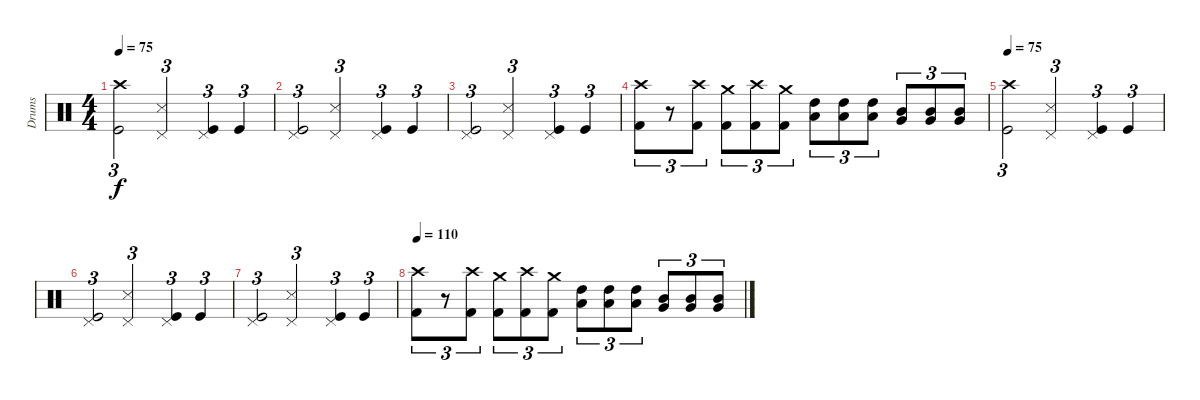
\track ("Drums" "Drums") {instrument percussion}
\staff {score}
\articulation defaults
\ts (4 4)
\tempo 75
\clef neutral
\ks c
("Crash high (hit)" "Kick (hit)").2{tu (3 2) dy f} ("Pedal Hi-Hat (hit)" "Snare (side stick) 3").2{tu (3 2)} ("Pedal Hi-Hat (hit)" "Kick (hit)").4{tu (3 2)} "Kick (hit)".4{tu (3 2)} |
("Pedal Hi-Hat (hit)" "Kick (hit)").2{tu (3 2)} ("Pedal Hi-Hat (hit)" "Snare (side stick) 3").2{tu (3 2)} ("Pedal Hi-Hat (hit)" "Kick (hit)").4{tu (3 2)} "Kick (hit)".4{tu (3 2)} |
("Pedal Hi-Hat (hit)" "Kick (hit)").2{tu (3 2)} ("Pedal Hi-Hat (hit)" "Snare (side stick) 3").2{tu (3 2)} ("Pedal Hi-Hat (hit)" "Kick (hit)").4{tu (3 2)} "Kick (hit)".4{tu (3 2)} |
("Crash high (hit)" "Kick (hit) 2").8{tu (3 2)} r.8{tu (3 2)} ("Crash high (hit)" "Kick (hit) 2").8{tu (3 2)} ("Crash medium (hit)" "Kick (hit) 2").8{tu (3 2)} ("Crash high (hit)" "Kick (hit) 2").8{tu (3 2)} ("Crash medium (hit)" "Kick (hit) 2").8{tu (3 2)} ("High Tom (hit)" "Low Tom (hit)").8{tu (3 2)} ("High Tom (hit)" "Low Tom (hit)").8{tu (3 2)} ("High Tom (hit)" "Low Tom (hit)").8{tu (3 2)} ("Mid Tom (hit)" "Very Low Tom (hit)").8{tu (3 2)} ("Mid Tom (hit)" "Very Low Tom (hit)").8{tu (3 2)} ("Mid Tom (hit)" "Very Low Tom (hit)").8{tu (3 2)} |
\tempo 75
("Crash high (hit)" "Kick (hit)").2{tu (3 2)} ("Pedal Hi-Hat (hit)" "Snare (side stick) 3").2{tu (3 2)} ("Pedal Hi-Hat (hit)" "Kick (hit)").4{tu (3 2)} "Kick (hit)".4{tu (3 2)} |
("Pedal Hi-Hat (hit)" "Kick (hit)").2{tu (3 2)} ("Pedal Hi-Hat (hit)" "Snare (side stick) 3").2{tu (3 2)} ("Pedal Hi-Hat (hit)" "Kick (hit)").4{tu (3 2)} "Kick (hit)".4{tu (3 2)} |
("Pedal Hi-Hat (hit)" "Kick (hit)").2{tu (3 2)} ("Pedal Hi-Hat (hit)" "Snare (side stick) 3").2{tu (3 2)} ("Pedal Hi-Hat (hit)" "Kick (hit)").4{tu (3 2)} "Kick (hit)".4{tu (3 2)} |
\tempo 110
("Crash high (hit)" "Kick (hit) 2").8{tu (3 2)} r.8{tu (3 2)} ("Crash high (hit)" "Kick (hit) 2").8{tu (3 2)} ("Crash medium (hit)" "Kick (hit) 2").8{tu (3 2)} ("Crash high (hit)" "Kick (hit) 2").8{tu (3 2)} ("Crash medium (hit)" "Kick (hit) 2").8{tu (3 2)} ("High Tom (hit)" "Low Tom (hit)").8{tu (3 2)} ("High Tom (hit)" "Low Tom (hit)").8{tu (3 2)} ("High Tom (hit)" "Low Tom (hit)").8{tu (3 2)} ("Mid Tom (hit)" "Very Low Tom (hit)").8{tu (3 2)} ("Mid Tom (hit)" "Very Low Tom (hit)").8{tu (3 2)} ("Mid Tom (hit)" "Very Low Tom (hit)").8{tu (3 2)}
